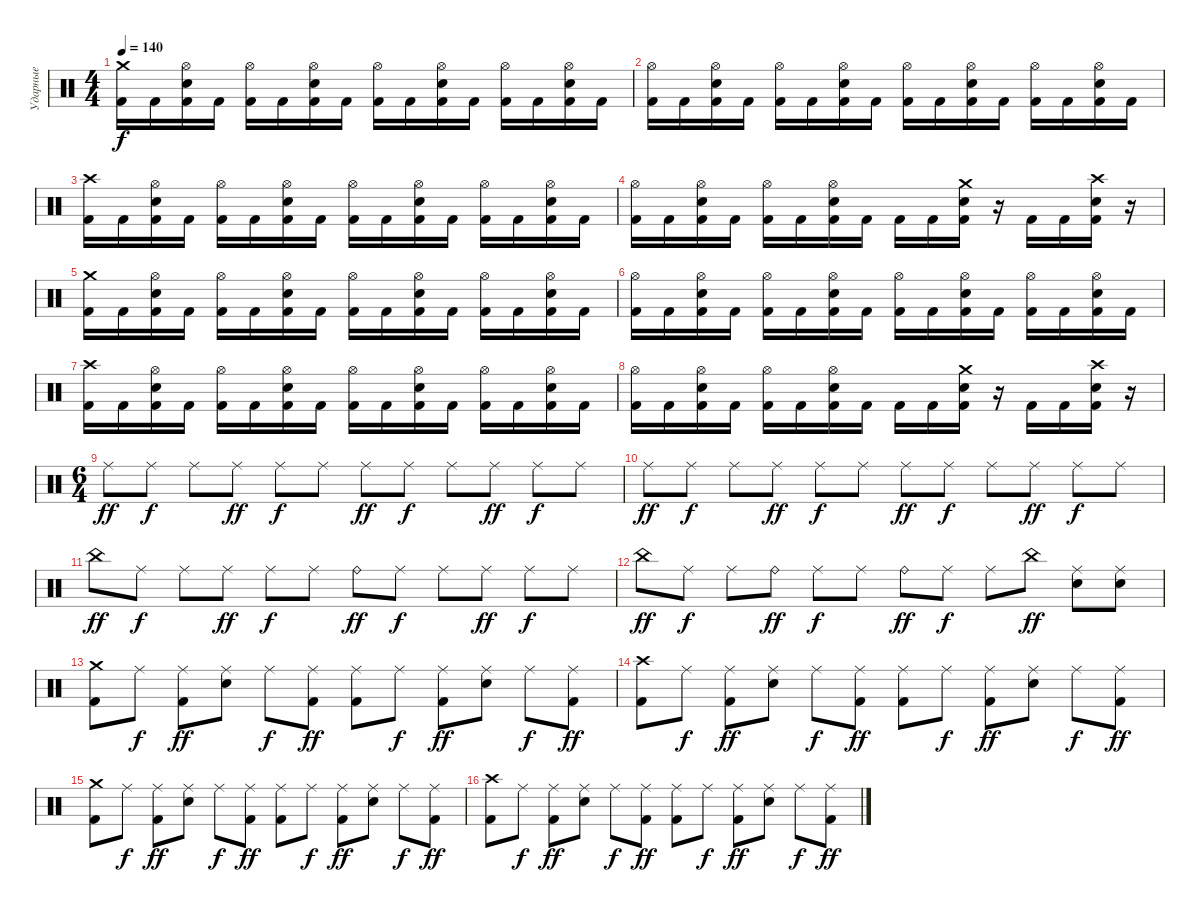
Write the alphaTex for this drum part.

\track ("Ударные" "Ударные") {instrument percussion}
\staff {score}
\articulation defaults
\ts (4 4)
\tempo 140
\clef neutral
\ks c
("Crash medium (hit)" "Kick (hit) 2").16{dy f} "Kick (hit) 2".16 ("Hi-Hat (open)" "Snare (hit) 2" "Kick (hit) 2").16 "Kick (hit) 2".16 ("Hi-Hat (open)" "Kick (hit) 2").16 "Kick (hit) 2".16 ("Hi-Hat (open)" "Snare (hit) 2" "Kick (hit) 2").16 "Kick (hit) 2".16 ("Hi-Hat (open)" "Kick (hit) 2").16 "Kick (hit) 2".16 ("Hi-Hat (open)" "Snare (hit) 2" "Kick (hit) 2").16 "Kick (hit) 2".16 ("Hi-Hat (open)" "Kick (hit) 2").16 "Kick (hit) 2".16 ("Hi-Hat (open)" "Snare (hit) 2" "Kick (hit) 2").16 "Kick (hit) 2".16 |
("Hi-Hat (open)" "Kick (hit) 2").16 "Kick (hit) 2".16 ("Hi-Hat (open)" "Snare (hit) 2" "Kick (hit) 2").16 "Kick (hit) 2".16 ("Hi-Hat (open)" "Kick (hit) 2").16 "Kick (hit) 2".16 ("Hi-Hat (open)" "Snare (hit) 2" "Kick (hit) 2").16 "Kick (hit) 2".16 ("Hi-Hat (open)" "Kick (hit) 2").16 "Kick (hit) 2".16 ("Hi-Hat (open)" "Snare (hit) 2" "Kick (hit) 2").16 "Kick (hit) 2".16 ("Hi-Hat (open)" "Kick (hit) 2").16 "Kick (hit) 2".16 ("Hi-Hat (open)" "Snare (hit) 2" "Kick (hit) 2").16 "Kick (hit) 2".16 |
("Crash high (hit)" "Kick (hit) 2").16 "Kick (hit) 2".16 ("Hi-Hat (open)" "Snare (hit) 2" "Kick (hit) 2").16 "Kick (hit) 2".16 ("Hi-Hat (open)" "Kick (hit) 2").16 "Kick (hit) 2".16 ("Hi-Hat (open)" "Snare (hit) 2" "Kick (hit) 2").16 "Kick (hit) 2".16 ("Hi-Hat (open)" "Kick (hit) 2").16 "Kick (hit) 2".16 ("Hi-Hat (open)" "Snare (hit) 2" "Kick (hit) 2").16 "Kick (hit) 2".16 ("Hi-Hat (open)" "Kick (hit) 2").16 "Kick (hit) 2".16 ("Hi-Hat (open)" "Snare (hit) 2" "Kick (hit) 2").16 "Kick (hit) 2".16 |
("Hi-Hat (open)" "Kick (hit) 2").16 "Kick (hit) 2".16 ("Hi-Hat (open)" "Snare (hit) 2" "Kick (hit) 2").16 "Kick (hit) 2".16 ("Hi-Hat (open)" "Kick (hit) 2").16 "Kick (hit) 2".16 ("Hi-Hat (open)" "Snare (hit) 2" "Kick (hit) 2").16 "Kick (hit) 2".16 "Kick (hit) 2".16 "Kick (hit) 2".16 ("Crash medium (hit)" "Snare (hit) 2" "Kick (hit) 2").16 r.16 "Kick (hit) 2".16 "Kick (hit) 2".16 ("Crash high (hit)" "Snare (hit) 2" "Kick (hit) 2").16 r.16 |
("Crash medium (hit)" "Kick (hit) 2").16 "Kick (hit) 2".16 ("Hi-Hat (open)" "Snare (hit) 2" "Kick (hit) 2").16 "Kick (hit) 2".16 ("Hi-Hat (open)" "Kick (hit) 2").16 "Kick (hit) 2".16 ("Hi-Hat (open)" "Snare (hit) 2" "Kick (hit) 2").16 "Kick (hit) 2".16 ("Hi-Hat (open)" "Kick (hit) 2").16 "Kick (hit) 2".16 ("Hi-Hat (open)" "Snare (hit) 2" "Kick (hit) 2").16 "Kick (hit) 2".16 ("Hi-Hat (open)" "Kick (hit) 2").16 "Kick (hit) 2".16 ("Hi-Hat (open)" "Snare (hit) 2" "Kick (hit) 2").16 "Kick (hit) 2".16 |
("Hi-Hat (open)" "Kick (hit) 2").16 "Kick (hit) 2".16 ("Hi-Hat (open)" "Snare (hit) 2" "Kick (hit) 2").16 "Kick (hit) 2".16 ("Hi-Hat (open)" "Kick (hit) 2").16 "Kick (hit) 2".16 ("Hi-Hat (open)" "Snare (hit) 2" "Kick (hit) 2").16 "Kick (hit) 2".16 ("Hi-Hat (open)" "Kick (hit) 2").16 "Kick (hit) 2".16 ("Hi-Hat (open)" "Snare (hit) 2" "Kick (hit) 2").16 "Kick (hit) 2".16 ("Hi-Hat (open)" "Kick (hit) 2").16 "Kick (hit) 2".16 ("Hi-Hat (open)" "Snare (hit) 2" "Kick (hit) 2").16 "Kick (hit) 2".16 |
("Crash high (hit)" "Kick (hit) 2").16 "Kick (hit) 2".16 ("Hi-Hat (open)" "Snare (hit) 2" "Kick (hit) 2").16 "Kick (hit) 2".16 ("Hi-Hat (open)" "Kick (hit) 2").16 "Kick (hit) 2".16 ("Hi-Hat (open)" "Snare (hit) 2" "Kick (hit) 2").16 "Kick (hit) 2".16 ("Hi-Hat (open)" "Kick (hit) 2").16 "Kick (hit) 2".16 ("Hi-Hat (open)" "Snare (hit) 2" "Kick (hit) 2").16 "Kick (hit) 2".16 ("Hi-Hat (open)" "Kick (hit) 2").16 "Kick (hit) 2".16 ("Hi-Hat (open)" "Snare (hit) 2" "Kick (hit) 2").16 "Kick (hit) 2".16 |
("Hi-Hat (open)" "Kick (hit) 2").16 "Kick (hit) 2".16 ("Hi-Hat (open)" "Snare (hit) 2" "Kick (hit) 2").16 "Kick (hit) 2".16 ("Hi-Hat (open)" "Kick (hit) 2").16 "Kick (hit) 2".16 ("Hi-Hat (open)" "Snare (hit) 2" "Kick (hit) 2").16 "Kick (hit) 2".16 "Kick (hit) 2".16 "Kick (hit) 2".16 ("Crash medium (hit)" "Snare (hit) 2" "Kick (hit) 2").16 r.16 "Kick (hit) 2".16 "Kick (hit) 2".16 ("Crash high (hit)" "Snare (hit) 2" "Kick (hit) 2").16 r.16 |
\ts (6 4)
"Ride (middle)".8{dy ff} "Ride (middle)".8{dy f} "Ride (middle)".8 "Ride (middle)".8{dy ff} "Ride (middle)".8{dy f} "Ride (middle)".8 "Ride (middle)".8{dy ff} "Ride (middle)".8{dy f} "Ride (middle)".8 "Ride (middle)".8{dy ff} "Ride (middle)".8{dy f} "Ride (middle)".8 |
"Ride (middle)".8{dy ff} "Ride (middle)".8{dy f} "Ride (middle)".8 "Ride (middle)".8{dy ff} "Ride (middle)".8{dy f} "Ride (middle)".8 "Ride (middle)".8{dy ff} "Ride (middle)".8{dy f} "Ride (middle)".8 "Ride (middle)".8{dy ff} "Ride (middle)".8{dy f} "Ride (middle)".8 |
"China (hit)".8{dy ff} "Ride (middle)".8{dy f} "Ride (middle)".8 "Ride (middle)".8{dy ff} "Ride (middle)".8{dy f} "Ride (middle)".8 "Ride (bell)".8{dy ff} "Ride (middle)".8{dy f} "Ride (middle)".8 "Ride (middle)".8{dy ff} "Ride (middle)".8{dy f} "Ride (middle)".8 |
"China (hit)".8{dy ff} "Ride (middle)".8{dy f} "Ride (middle)".8 "Ride (bell)".8{dy ff} "Ride (middle)".8{dy f} "Ride (middle)".8 "Ride (bell)".8{dy ff} "Ride (middle)".8{dy f} "Ride (middle)".8 "China (hit)".8{dy ff} ("Ride (middle)" "Snare (hit) 2").8 ("Ride (middle)" "Snare (hit) 2").8 |
("Crash medium (hit)" "Kick (hit) 2").8 "Ride (middle)".8{dy f} ("Ride (middle)" "Kick (hit) 2").8{dy ff} ("Ride (middle)" "Snare (hit) 2").8 "Ride (middle)".8{dy f} ("Ride (middle)" "Kick (hit) 2").8{dy ff} ("Ride (middle)" "Kick (hit) 2").8 "Ride (middle)".8{dy f} ("Ride (middle)" "Kick (hit) 2").8{dy ff} ("Ride (middle)" "Snare (hit) 2").8 "Ride (middle)".8{dy f} ("Ride (middle)" "Kick (hit) 2").8{dy ff} |
("Crash high (hit)" "Kick (hit) 2").8 "Ride (middle)".8{dy f} ("Ride (middle)" "Kick (hit) 2").8{dy ff} ("Ride (middle)" "Snare (hit) 2").8 "Ride (middle)".8{dy f} ("Ride (middle)" "Kick (hit) 2").8{dy ff} ("Ride (middle)" "Kick (hit) 2").8 "Ride (middle)".8{dy f} ("Ride (middle)" "Kick (hit) 2").8{dy ff} ("Ride (middle)" "Snare (hit) 2").8 "Ride (middle)".8{dy f} ("Ride (middle)" "Kick (hit) 2").8{dy ff} |
("Crash medium (hit)" "Kick (hit) 2").8 "Ride (middle)".8{dy f} ("Ride (middle)" "Kick (hit) 2").8{dy ff} ("Ride (middle)" "Snare (hit) 2").8 "Ride (middle)".8{dy f} ("Ride (middle)" "Kick (hit) 2").8{dy ff} ("Ride (middle)" "Kick (hit) 2").8 "Ride (middle)".8{dy f} ("Ride (middle)" "Kick (hit) 2").8{dy ff} ("Ride (middle)" "Snare (hit) 2").8 "Ride (middle)".8{dy f} ("Ride (middle)" "Kick (hit) 2").8{dy ff} |
("Crash high (hit)" "Kick (hit) 2").8 "Ride (middle)".8{dy f} ("Ride (middle)" "Kick (hit) 2").8{dy ff} ("Ride (middle)" "Snare (hit) 2").8 "Ride (middle)".8{dy f} ("Ride (middle)" "Kick (hit) 2").8{dy ff} ("Ride (middle)" "Kick (hit) 2").8 "Ride (middle)".8{dy f} ("Ride (middle)" "Kick (hit) 2").8{dy ff} ("Ride (middle)" "Snare (hit) 2").8 "Ride (middle)".8{dy f} ("Ride (middle)" "Kick (hit) 2").8{dy ff}
